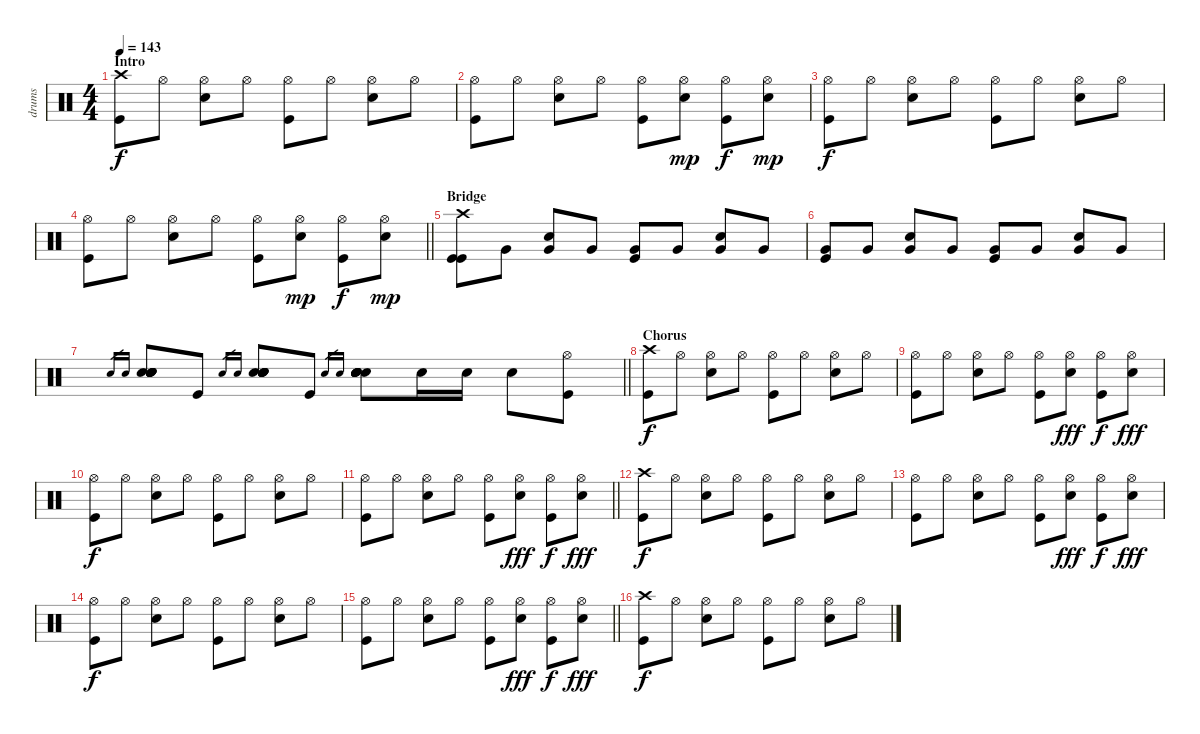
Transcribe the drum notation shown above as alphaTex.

\track ("drums" "drums") {instrument percussion}
\staff {score}
\articulation defaults
\ts (4 4)
\section ("" "Intro")
\tempo 143
\clef neutral
\ks c
("Crash high (hit)" "Kick (hit)").8{dy f} "Hi-Hat (open)".8 ("Hi-Hat (open)" "Snare (hit) 2").8 "Hi-Hat (open)".8 ("Hi-Hat (open)" "Kick (hit)").8 "Hi-Hat (open)".8 ("Hi-Hat (open)" "Snare (hit) 2").8 "Hi-Hat (open)".8 |
("Hi-Hat (open)" "Kick (hit)").8 "Hi-Hat (open)".8 ("Hi-Hat (open)" "Snare (hit) 2").8 "Hi-Hat (open)".8 ("Hi-Hat (open)" "Kick (hit)").8 ("Hi-Hat (open)" "Snare (hit) 2").8{dy mp} ("Hi-Hat (open)" "Kick (hit)").8{dy f} ("Hi-Hat (open)" "Snare (hit) 2").8{dy mp} |
("Hi-Hat (open)" "Kick (hit)").8{dy f} "Hi-Hat (open)".8 ("Hi-Hat (open)" "Snare (hit) 2").8 "Hi-Hat (open)".8 ("Hi-Hat (open)" "Kick (hit)").8 "Hi-Hat (open)".8 ("Hi-Hat (open)" "Snare (hit) 2").8 "Hi-Hat (open)".8 |
\barLineRight lightlight
("Hi-Hat (open)" "Kick (hit)").8 "Hi-Hat (open)".8 ("Hi-Hat (open)" "Snare (hit) 2").8 "Hi-Hat (open)".8 ("Hi-Hat (open)" "Kick (hit)").8 ("Hi-Hat (open)" "Snare (hit) 2").8{dy mp} ("Hi-Hat (open)" "Kick (hit)").8{dy f} ("Hi-Hat (open)" "Snare (hit) 2").8{dy mp} |
\section ("" "Bridge")
("Crash high (hit)" "Kick (hit)" "Kick (hit)").8 "Very Low Tom (hit)".8 ("Snare (hit) 2" "Very Low Tom (hit)").8 "Very Low Tom (hit)".8 ("Very Low Tom (hit)" "Kick (hit)").8 "Very Low Tom (hit)".8 ("Snare (hit) 2" "Very Low Tom (hit)").8 "Very Low Tom (hit)".8 |
("Very Low Tom (hit)" "Kick (hit)").8 "Very Low Tom (hit)".8 ("Snare (hit) 2" "Very Low Tom (hit)").8 "Very Low Tom (hit)".8 ("Very Low Tom (hit)" "Kick (hit)").8 "Very Low Tom (hit)".8 ("Snare (hit) 2" "Very Low Tom (hit)").8 "Very Low Tom (hit)".8 |
\barLineRight lightlight "Snare (hit) 2".16{gr} "Snare (hit) 2".16{gr}
("Snare (hit) 2" "Snare (hit) 2" "Snare (hit) 2" "Snare (hit) 2" "Snare (hit) 2" "Snare (hit) 2").8 "Kick (hit)".8 "Snare (hit) 2".16{gr} "Snare (hit) 2".16{gr} ("Snare (hit) 2" "Snare (hit) 2" "Snare (hit) 2" "Snare (hit) 2" "Snare (hit) 2" "Snare (hit) 2").8 "Kick (hit)".8 "Snare (hit) 2".16{gr} "Snare (hit) 2".16{gr} ("Snare (hit) 2" "Snare (hit) 2" "Snare (hit) 2" "Snare (hit) 2" "Snare (hit) 2" "Snare (hit) 2").8 "Snare (hit) 2".16 "Snare (hit) 2".16 "Snare (hit) 2".8 ("Hi-Hat (open)" "Kick (hit)").8 |
\section ("" "Chorus")
("Crash high (hit)" "Kick (hit)").8{dy f} "Hi-Hat (open)".8 ("Hi-Hat (open)" "Snare (hit) 2").8 "Hi-Hat (open)".8 ("Hi-Hat (open)" "Kick (hit)").8 "Hi-Hat (open)".8 ("Hi-Hat (open)" "Snare (hit) 2").8 "Hi-Hat (open)".8 |
("Hi-Hat (open)" "Kick (hit)").8 "Hi-Hat (open)".8 ("Hi-Hat (open)" "Snare (hit) 2").8 "Hi-Hat (open)".8 ("Hi-Hat (open)" "Kick (hit)").8 ("Hi-Hat (open)" "Snare (hit) 2").8{dy fff} ("Hi-Hat (open)" "Kick (hit)").8{dy f} ("Hi-Hat (open)" "Snare (hit) 2").8{dy fff} |
("Hi-Hat (open)" "Kick (hit)").8{dy f} "Hi-Hat (open)".8 ("Hi-Hat (open)" "Snare (hit) 2").8 "Hi-Hat (open)".8 ("Hi-Hat (open)" "Kick (hit)").8 "Hi-Hat (open)".8 ("Hi-Hat (open)" "Snare (hit) 2").8 "Hi-Hat (open)".8 |
\barLineRight lightlight
("Hi-Hat (open)" "Kick (hit)").8 "Hi-Hat (open)".8 ("Hi-Hat (open)" "Snare (hit) 2").8 "Hi-Hat (open)".8 ("Hi-Hat (open)" "Kick (hit)").8 ("Hi-Hat (open)" "Snare (hit) 2").8{dy fff} ("Hi-Hat (open)" "Kick (hit)").8{dy f} ("Hi-Hat (open)" "Snare (hit) 2").8{dy fff} |
("Crash high (hit)" "Kick (hit)").8{dy f} "Hi-Hat (open)".8 ("Hi-Hat (open)" "Snare (hit) 2").8 "Hi-Hat (open)".8 ("Hi-Hat (open)" "Kick (hit)").8 "Hi-Hat (open)".8 ("Hi-Hat (open)" "Snare (hit) 2").8 "Hi-Hat (open)".8 |
("Hi-Hat (open)" "Kick (hit)").8 "Hi-Hat (open)".8 ("Hi-Hat (open)" "Snare (hit) 2").8 "Hi-Hat (open)".8 ("Hi-Hat (open)" "Kick (hit)").8 ("Hi-Hat (open)" "Snare (hit) 2").8{dy fff} ("Hi-Hat (open)" "Kick (hit)").8{dy f} ("Hi-Hat (open)" "Snare (hit) 2").8{dy fff} |
("Hi-Hat (open)" "Kick (hit)").8{dy f} "Hi-Hat (open)".8 ("Hi-Hat (open)" "Snare (hit) 2").8 "Hi-Hat (open)".8 ("Hi-Hat (open)" "Kick (hit)").8 "Hi-Hat (open)".8 ("Hi-Hat (open)" "Snare (hit) 2").8 "Hi-Hat (open)".8 |
\barLineRight lightlight
("Hi-Hat (open)" "Kick (hit)").8 "Hi-Hat (open)".8 ("Hi-Hat (open)" "Snare (hit) 2").8 "Hi-Hat (open)".8 ("Hi-Hat (open)" "Kick (hit)").8 ("Hi-Hat (open)" "Snare (hit) 2").8{dy fff} ("Hi-Hat (open)" "Kick (hit)").8{dy f} ("Hi-Hat (open)" "Snare (hit) 2").8{dy fff} |
("Crash high (hit)" "Kick (hit)").8{dy f} "Hi-Hat (open)".8 ("Hi-Hat (open)" "Snare (hit) 2").8 "Hi-Hat (open)".8 ("Hi-Hat (open)" "Kick (hit)").8 "Hi-Hat (open)".8 ("Hi-Hat (open)" "Snare (hit) 2").8 "Hi-Hat (open)".8
